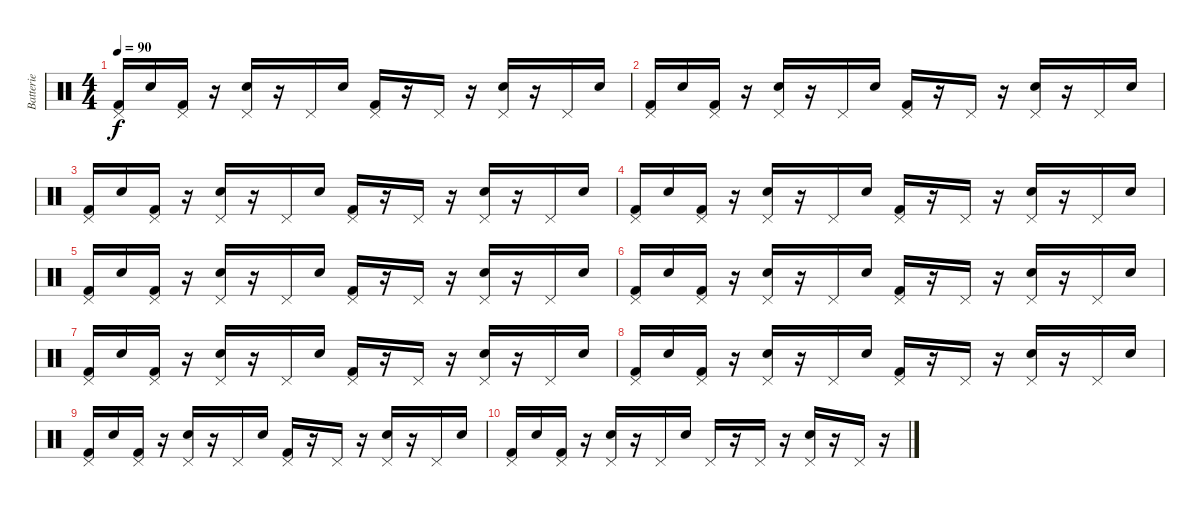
\track ("Batterie" "Batterie") {instrument percussion}
\staff {score}
\articulation defaults
\ts (4 4)
\tempo 90
\clef neutral
\ks c
("Pedal Hi-Hat (hit)" "Kick (hit) 2").16{dy f} "Electric Snare (hit)".16 ("Pedal Hi-Hat (hit)" "Kick (hit) 2").16 r.16 ("Pedal Hi-Hat (hit)" "Electric Snare (hit)").16 r.16 "Pedal Hi-Hat (hit)".16 "Electric Snare (hit)".16 ("Pedal Hi-Hat (hit)" "Kick (hit) 2").16 r.16 "Pedal Hi-Hat (hit)".16 r.16 ("Pedal Hi-Hat (hit)" "Electric Snare (hit)").16 r.16 "Pedal Hi-Hat (hit)".16 "Electric Snare (hit)".16 |
("Pedal Hi-Hat (hit)" "Kick (hit) 2").16 "Electric Snare (hit)".16 ("Pedal Hi-Hat (hit)" "Kick (hit) 2").16 r.16 ("Pedal Hi-Hat (hit)" "Electric Snare (hit)").16 r.16 "Pedal Hi-Hat (hit)".16 "Electric Snare (hit)".16 ("Pedal Hi-Hat (hit)" "Kick (hit) 2").16 r.16 "Pedal Hi-Hat (hit)".16 r.16 ("Pedal Hi-Hat (hit)" "Electric Snare (hit)").16 r.16 "Pedal Hi-Hat (hit)".16 "Electric Snare (hit)".16 |
("Pedal Hi-Hat (hit)" "Kick (hit) 2").16 "Electric Snare (hit)".16 ("Pedal Hi-Hat (hit)" "Kick (hit) 2").16 r.16 ("Pedal Hi-Hat (hit)" "Electric Snare (hit)").16 r.16 "Pedal Hi-Hat (hit)".16 "Electric Snare (hit)".16 ("Pedal Hi-Hat (hit)" "Kick (hit) 2").16 r.16 "Pedal Hi-Hat (hit)".16 r.16 ("Pedal Hi-Hat (hit)" "Electric Snare (hit)").16 r.16 "Pedal Hi-Hat (hit)".16 "Electric Snare (hit)".16 |
("Pedal Hi-Hat (hit)" "Kick (hit) 2").16 "Electric Snare (hit)".16 ("Pedal Hi-Hat (hit)" "Kick (hit) 2").16 r.16 ("Pedal Hi-Hat (hit)" "Electric Snare (hit)").16 r.16 "Pedal Hi-Hat (hit)".16 "Electric Snare (hit)".16 ("Pedal Hi-Hat (hit)" "Kick (hit) 2").16 r.16 "Pedal Hi-Hat (hit)".16 r.16 ("Pedal Hi-Hat (hit)" "Electric Snare (hit)").16 r.16 "Pedal Hi-Hat (hit)".16 "Electric Snare (hit)".16 |
("Pedal Hi-Hat (hit)" "Kick (hit) 2").16 "Electric Snare (hit)".16 ("Pedal Hi-Hat (hit)" "Kick (hit) 2").16 r.16 ("Pedal Hi-Hat (hit)" "Electric Snare (hit)").16 r.16 "Pedal Hi-Hat (hit)".16 "Electric Snare (hit)".16 ("Pedal Hi-Hat (hit)" "Kick (hit) 2").16 r.16 "Pedal Hi-Hat (hit)".16 r.16 ("Pedal Hi-Hat (hit)" "Electric Snare (hit)").16 r.16 "Pedal Hi-Hat (hit)".16 "Electric Snare (hit)".16 |
("Pedal Hi-Hat (hit)" "Kick (hit) 2").16 "Electric Snare (hit)".16 ("Pedal Hi-Hat (hit)" "Kick (hit) 2").16 r.16 ("Pedal Hi-Hat (hit)" "Electric Snare (hit)").16 r.16 "Pedal Hi-Hat (hit)".16 "Electric Snare (hit)".16 ("Pedal Hi-Hat (hit)" "Kick (hit) 2").16 r.16 "Pedal Hi-Hat (hit)".16 r.16 ("Pedal Hi-Hat (hit)" "Electric Snare (hit)").16 r.16 "Pedal Hi-Hat (hit)".16 "Electric Snare (hit)".16 |
("Pedal Hi-Hat (hit)" "Kick (hit) 2").16 "Electric Snare (hit)".16 ("Pedal Hi-Hat (hit)" "Kick (hit) 2").16 r.16 ("Pedal Hi-Hat (hit)" "Electric Snare (hit)").16 r.16 "Pedal Hi-Hat (hit)".16 "Electric Snare (hit)".16 ("Pedal Hi-Hat (hit)" "Kick (hit) 2").16 r.16 "Pedal Hi-Hat (hit)".16 r.16 ("Pedal Hi-Hat (hit)" "Electric Snare (hit)").16 r.16 "Pedal Hi-Hat (hit)".16 "Electric Snare (hit)".16 |
("Pedal Hi-Hat (hit)" "Kick (hit) 2").16 "Electric Snare (hit)".16 ("Pedal Hi-Hat (hit)" "Kick (hit) 2").16 r.16 ("Pedal Hi-Hat (hit)" "Electric Snare (hit)").16 r.16 "Pedal Hi-Hat (hit)".16 "Electric Snare (hit)".16 ("Pedal Hi-Hat (hit)" "Kick (hit) 2").16 r.16 "Pedal Hi-Hat (hit)".16 r.16 ("Pedal Hi-Hat (hit)" "Electric Snare (hit)").16 r.16 "Pedal Hi-Hat (hit)".16 "Electric Snare (hit)".16 |
("Pedal Hi-Hat (hit)" "Kick (hit) 2").16 "Electric Snare (hit)".16 ("Pedal Hi-Hat (hit)" "Kick (hit) 2").16 r.16 ("Pedal Hi-Hat (hit)" "Electric Snare (hit)").16 r.16 "Pedal Hi-Hat (hit)".16 "Electric Snare (hit)".16 ("Pedal Hi-Hat (hit)" "Kick (hit) 2").16 r.16 "Pedal Hi-Hat (hit)".16 r.16 ("Pedal Hi-Hat (hit)" "Electric Snare (hit)").16 r.16 "Pedal Hi-Hat (hit)".16 "Electric Snare (hit)".16 |
("Pedal Hi-Hat (hit)" "Kick (hit) 2").16 "Electric Snare (hit)".16 ("Pedal Hi-Hat (hit)" "Kick (hit) 2").16 r.16 ("Pedal Hi-Hat (hit)" "Electric Snare (hit)").16 r.16 "Pedal Hi-Hat (hit)".16 "Electric Snare (hit)".16 "Pedal Hi-Hat (hit)".16 r.16 "Pedal Hi-Hat (hit)".16 r.16 ("Pedal Hi-Hat (hit)" "Electric Snare (hit)").16 r.16 "Pedal Hi-Hat (hit)".16 r.16
